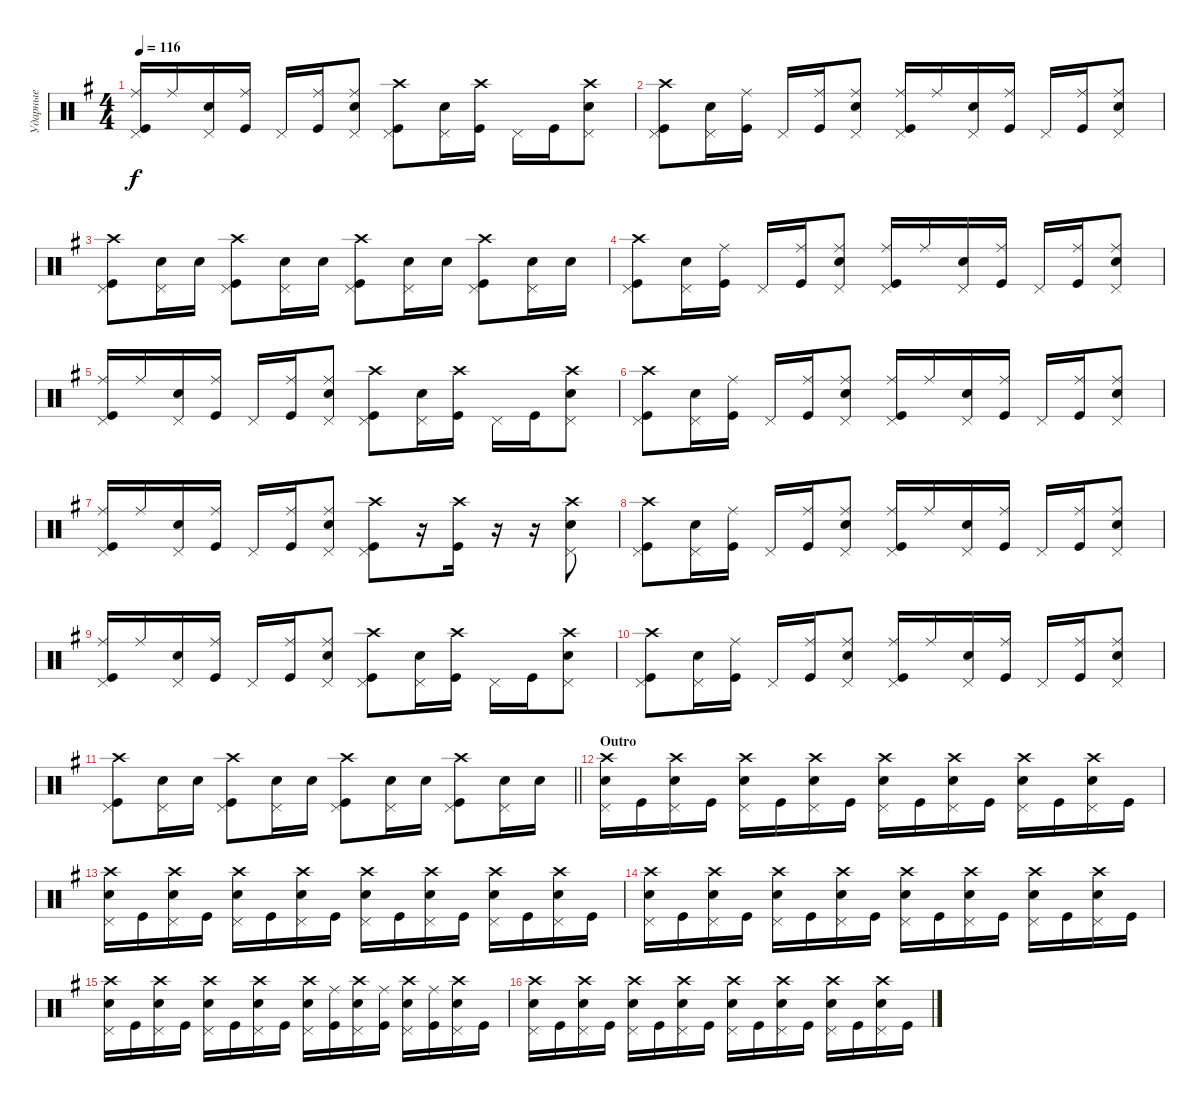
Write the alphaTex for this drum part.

\track ("Ударные" "Ударные") {instrument percussion}
\staff {score}
\articulation defaults
\ts (4 4)
\tempo 116
\clef neutral
\ks eminor
("Kick (hit)" "Ride (middle)" "Pedal Hi-Hat (hit)").16{dy f} "Ride (middle)".16 ("Snare (hit) 2" "Pedal Hi-Hat (hit)").16 ("Kick (hit)" "Ride (middle)").16 "Pedal Hi-Hat (hit)".16 ("Ride (middle)" "Kick (hit)").16 ("Snare (hit) 2" "Ride (middle)" "Pedal Hi-Hat (hit)").8 ("Kick (hit)" "Crash high (hit)" "Pedal Hi-Hat (hit)").8 ("Snare (hit) 2" "Pedal Hi-Hat (hit)").16 ("Kick (hit)" "Crash high (hit)").16 "Pedal Hi-Hat (hit)".16 "Kick (hit)".16 ("Crash high (hit)" "Snare (hit) 2" "Pedal Hi-Hat (hit)").8 |
("Kick (hit)" "Crash high (hit)" "Pedal Hi-Hat (hit)").8 ("Snare (hit) 2" "Pedal Hi-Hat (hit)").16 ("Kick (hit)" "Ride (middle)").16 "Pedal Hi-Hat (hit)".16 ("Ride (middle)" "Kick (hit)").16 ("Snare (hit) 2" "Ride (middle)" "Pedal Hi-Hat (hit)").8 ("Kick (hit)" "Ride (middle)" "Pedal Hi-Hat (hit)").16 "Ride (middle)".16 ("Snare (hit) 2" "Pedal Hi-Hat (hit)").16 ("Kick (hit)" "Ride (middle)").16 "Pedal Hi-Hat (hit)".16 ("Ride (middle)" "Kick (hit)").16 ("Ride (middle)" "Snare (hit) 2" "Pedal Hi-Hat (hit)").8 |
("Kick (hit)" "Crash high (hit)" "Pedal Hi-Hat (hit)").8 ("Snare (hit) 2" "Pedal Hi-Hat (hit)").16 "Snare (hit) 2".16 ("Kick (hit)" "Crash high (hit)" "Pedal Hi-Hat (hit)").8 ("Snare (hit) 2" "Pedal Hi-Hat (hit)").16 "Snare (hit) 2".16 ("Kick (hit)" "Crash high (hit)" "Pedal Hi-Hat (hit)").8 ("Snare (hit) 2" "Pedal Hi-Hat (hit)").16 "Snare (hit) 2".16 ("Kick (hit)" "Crash high (hit)" "Pedal Hi-Hat (hit)").8 ("Snare (hit) 2" "Pedal Hi-Hat (hit)").16 "Snare (hit) 2".16 |
("Kick (hit)" "Crash high (hit)" "Pedal Hi-Hat (hit)").8 ("Snare (hit) 2" "Pedal Hi-Hat (hit)").16 ("Kick (hit)" "Ride (middle)").16 "Pedal Hi-Hat (hit)".16 ("Ride (middle)" "Kick (hit)").16 ("Snare (hit) 2" "Ride (middle)" "Pedal Hi-Hat (hit)").8 ("Kick (hit)" "Ride (middle)" "Pedal Hi-Hat (hit)").16 "Ride (middle)".16 ("Snare (hit) 2" "Pedal Hi-Hat (hit)").16 ("Kick (hit)" "Ride (middle)").16 "Pedal Hi-Hat (hit)".16 ("Ride (middle)" "Kick (hit)").16 ("Ride (middle)" "Snare (hit) 2" "Pedal Hi-Hat (hit)").8 |
("Kick (hit)" "Ride (middle)" "Pedal Hi-Hat (hit)").16 "Ride (middle)".16 ("Snare (hit) 2" "Pedal Hi-Hat (hit)").16 ("Kick (hit)" "Ride (middle)").16 "Pedal Hi-Hat (hit)".16 ("Ride (middle)" "Kick (hit)").16 ("Snare (hit) 2" "Ride (middle)" "Pedal Hi-Hat (hit)").8 ("Kick (hit)" "Crash high (hit)" "Pedal Hi-Hat (hit)").8 ("Snare (hit) 2" "Pedal Hi-Hat (hit)").16 ("Kick (hit)" "Crash high (hit)").16 "Pedal Hi-Hat (hit)".16 "Kick (hit)".16 ("Crash high (hit)" "Snare (hit) 2" "Pedal Hi-Hat (hit)").8 |
("Kick (hit)" "Crash high (hit)" "Pedal Hi-Hat (hit)").8 ("Snare (hit) 2" "Pedal Hi-Hat (hit)").16 ("Kick (hit)" "Ride (middle)").16 "Pedal Hi-Hat (hit)".16 ("Ride (middle)" "Kick (hit)").16 ("Snare (hit) 2" "Ride (middle)" "Pedal Hi-Hat (hit)").8 ("Kick (hit)" "Ride (middle)" "Pedal Hi-Hat (hit)").16 "Ride (middle)".16 ("Snare (hit) 2" "Pedal Hi-Hat (hit)").16 ("Kick (hit)" "Ride (middle)").16 "Pedal Hi-Hat (hit)".16 ("Ride (middle)" "Kick (hit)").16 ("Ride (middle)" "Snare (hit) 2" "Pedal Hi-Hat (hit)").8 |
("Kick (hit)" "Ride (middle)" "Pedal Hi-Hat (hit)").16 "Ride (middle)".16 ("Snare (hit) 2" "Pedal Hi-Hat (hit)").16 ("Kick (hit)" "Ride (middle)").16 "Pedal Hi-Hat (hit)".16 ("Ride (middle)" "Kick (hit)").16 ("Snare (hit) 2" "Ride (middle)" "Pedal Hi-Hat (hit)").8 ("Kick (hit)" "Crash high (hit)" "Pedal Hi-Hat (hit)").8 r.16 ("Kick (hit)" "Crash high (hit)").16 r.16 r.16 ("Crash high (hit)" "Snare (hit) 2" "Pedal Hi-Hat (hit)").8 |
("Kick (hit)" "Crash high (hit)" "Pedal Hi-Hat (hit)").8 ("Snare (hit) 2" "Pedal Hi-Hat (hit)").16 ("Kick (hit)" "Ride (middle)").16 "Pedal Hi-Hat (hit)".16 ("Ride (middle)" "Kick (hit)").16 ("Snare (hit) 2" "Ride (middle)" "Pedal Hi-Hat (hit)").8 ("Kick (hit)" "Ride (middle)" "Pedal Hi-Hat (hit)").16 "Ride (middle)".16 ("Snare (hit) 2" "Pedal Hi-Hat (hit)").16 ("Kick (hit)" "Ride (middle)").16 "Pedal Hi-Hat (hit)".16 ("Ride (middle)" "Kick (hit)").16 ("Ride (middle)" "Snare (hit) 2" "Pedal Hi-Hat (hit)").8 |
("Kick (hit)" "Ride (middle)" "Pedal Hi-Hat (hit)").16 "Ride (middle)".16 ("Snare (hit) 2" "Pedal Hi-Hat (hit)").16 ("Kick (hit)" "Ride (middle)").16 "Pedal Hi-Hat (hit)".16 ("Ride (middle)" "Kick (hit)").16 ("Snare (hit) 2" "Ride (middle)" "Pedal Hi-Hat (hit)").8 ("Kick (hit)" "Crash high (hit)" "Pedal Hi-Hat (hit)").8 ("Snare (hit) 2" "Pedal Hi-Hat (hit)").16 ("Kick (hit)" "Crash high (hit)").16 "Pedal Hi-Hat (hit)".16 "Kick (hit)".16 ("Crash high (hit)" "Snare (hit) 2" "Pedal Hi-Hat (hit)").8 |
("Kick (hit)" "Crash high (hit)" "Pedal Hi-Hat (hit)").8 ("Snare (hit) 2" "Pedal Hi-Hat (hit)").16 ("Kick (hit)" "Ride (middle)").16 "Pedal Hi-Hat (hit)".16 ("Ride (middle)" "Kick (hit)").16 ("Snare (hit) 2" "Ride (middle)" "Pedal Hi-Hat (hit)").8 ("Kick (hit)" "Ride (middle)" "Pedal Hi-Hat (hit)").16 "Ride (middle)".16 ("Snare (hit) 2" "Pedal Hi-Hat (hit)").16 ("Kick (hit)" "Ride (middle)").16 "Pedal Hi-Hat (hit)".16 ("Ride (middle)" "Kick (hit)").16 ("Ride (middle)" "Snare (hit) 2" "Pedal Hi-Hat (hit)").8 |
\barLineRight lightlight
("Kick (hit)" "Crash high (hit)" "Pedal Hi-Hat (hit)").8 ("Snare (hit) 2" "Pedal Hi-Hat (hit)").16 "Snare (hit) 2".16 ("Kick (hit)" "Crash high (hit)" "Pedal Hi-Hat (hit)").8 ("Snare (hit) 2" "Pedal Hi-Hat (hit)").16 "Snare (hit) 2".16 ("Kick (hit)" "Crash high (hit)" "Pedal Hi-Hat (hit)").8 ("Snare (hit) 2" "Pedal Hi-Hat (hit)").16 "Snare (hit) 2".16 ("Kick (hit)" "Crash high (hit)" "Pedal Hi-Hat (hit)").8 ("Snare (hit) 2" "Pedal Hi-Hat (hit)").16 "Snare (hit) 2".16 |
\section ("" "Outro")
("Pedal Hi-Hat (hit)" "Snare (hit) 2" "Crash high (hit)").16 "Kick (hit)".16 ("Pedal Hi-Hat (hit)" "Snare (hit) 2" "Crash high (hit)").16 "Kick (hit)".16 ("Pedal Hi-Hat (hit)" "Snare (hit) 2" "Crash high (hit)").16 "Kick (hit)".16 ("Pedal Hi-Hat (hit)" "Snare (hit) 2" "Crash high (hit)").16 "Kick (hit)".16 ("Pedal Hi-Hat (hit)" "Snare (hit) 2" "Crash high (hit)").16 "Kick (hit)".16 ("Pedal Hi-Hat (hit)" "Snare (hit) 2" "Crash high (hit)").16 "Kick (hit)".16 ("Pedal Hi-Hat (hit)" "Snare (hit) 2" "Crash high (hit)").16 "Kick (hit)".16 ("Pedal Hi-Hat (hit)" "Snare (hit) 2" "Crash high (hit)").16 "Kick (hit)".16 |
("Pedal Hi-Hat (hit)" "Snare (hit) 2" "Crash high (hit)").16 "Kick (hit)".16 ("Pedal Hi-Hat (hit)" "Snare (hit) 2" "Crash high (hit)").16 "Kick (hit)".16 ("Pedal Hi-Hat (hit)" "Snare (hit) 2" "Crash high (hit)").16 "Kick (hit)".16 ("Pedal Hi-Hat (hit)" "Snare (hit) 2" "Crash high (hit)").16 "Kick (hit)".16 ("Pedal Hi-Hat (hit)" "Snare (hit) 2" "Crash high (hit)").16 "Kick (hit)".16 ("Pedal Hi-Hat (hit)" "Snare (hit) 2" "Crash high (hit)").16 "Kick (hit)".16 ("Pedal Hi-Hat (hit)" "Snare (hit) 2" "Crash high (hit)").16 "Kick (hit)".16 ("Pedal Hi-Hat (hit)" "Snare (hit) 2" "Crash high (hit)").16 "Kick (hit)".16 |
("Pedal Hi-Hat (hit)" "Snare (hit) 2" "Crash high (hit)").16 "Kick (hit)".16 ("Pedal Hi-Hat (hit)" "Snare (hit) 2" "Crash high (hit)").16 "Kick (hit)".16 ("Pedal Hi-Hat (hit)" "Snare (hit) 2" "Crash high (hit)").16 "Kick (hit)".16 ("Pedal Hi-Hat (hit)" "Snare (hit) 2" "Crash high (hit)").16 "Kick (hit)".16 ("Pedal Hi-Hat (hit)" "Snare (hit) 2" "Crash high (hit)").16 "Kick (hit)".16 ("Pedal Hi-Hat (hit)" "Snare (hit) 2" "Crash high (hit)").16 "Kick (hit)".16 ("Pedal Hi-Hat (hit)" "Snare (hit) 2" "Crash high (hit)").16 "Kick (hit)".16 ("Pedal Hi-Hat (hit)" "Snare (hit) 2" "Crash high (hit)").16 "Kick (hit)".16 |
("Pedal Hi-Hat (hit)" "Snare (hit) 2" "Crash high (hit)").16 "Kick (hit)".16 ("Pedal Hi-Hat (hit)" "Snare (hit) 2" "Crash high (hit)").16 "Kick (hit)".16 ("Pedal Hi-Hat (hit)" "Snare (hit) 2" "Crash high (hit)").16 "Kick (hit)".16 ("Pedal Hi-Hat (hit)" "Snare (hit) 2" "Crash high (hit)").16 "Kick (hit)".16 ("Pedal Hi-Hat (hit)" "Snare (hit) 2" "Crash high (hit)").16 ("Kick (hit)" "Ride (middle)").16 ("Pedal Hi-Hat (hit)" "Snare (hit) 2" "Crash high (hit)").16 ("Kick (hit)" "Ride (middle)").16 ("Pedal Hi-Hat (hit)" "Snare (hit) 2" "Crash high (hit)").16 ("Kick (hit)" "Ride (middle)").16 ("Pedal Hi-Hat (hit)" "Snare (hit) 2" "Crash high (hit)").16 "Kick (hit)".16 |
("Pedal Hi-Hat (hit)" "Snare (hit) 2" "Crash high (hit)").16 "Kick (hit)".16 ("Pedal Hi-Hat (hit)" "Snare (hit) 2" "Crash high (hit)").16 "Kick (hit)".16 ("Pedal Hi-Hat (hit)" "Snare (hit) 2" "Crash high (hit)").16 "Kick (hit)".16 ("Pedal Hi-Hat (hit)" "Snare (hit) 2" "Crash high (hit)").16 "Kick (hit)".16 ("Pedal Hi-Hat (hit)" "Snare (hit) 2" "Crash high (hit)").16 "Kick (hit)".16 ("Pedal Hi-Hat (hit)" "Snare (hit) 2" "Crash high (hit)").16 "Kick (hit)".16 ("Pedal Hi-Hat (hit)" "Snare (hit) 2" "Crash high (hit)").16 "Kick (hit)".16 ("Pedal Hi-Hat (hit)" "Snare (hit) 2" "Crash high (hit)").16 "Kick (hit)".16
